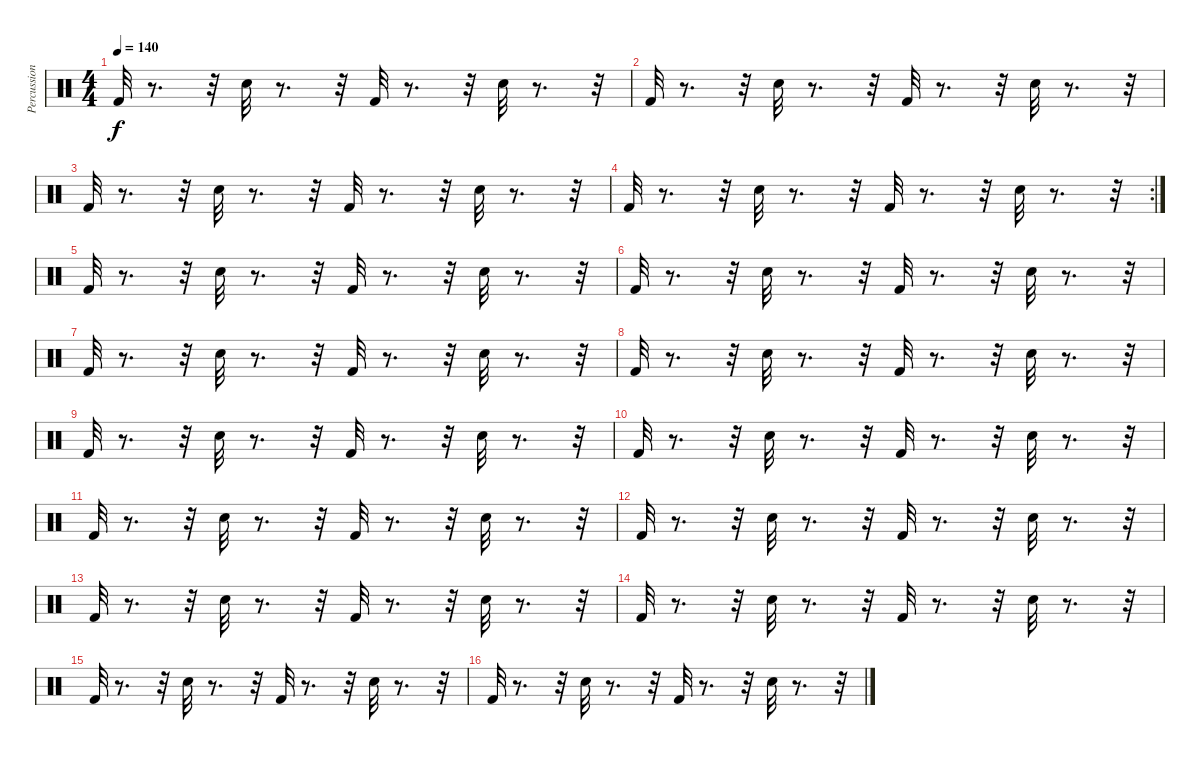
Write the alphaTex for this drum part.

\track ("Percussion 2" "Percussion") {instrument percussion}
\staff {score}
\articulation defaults
\ts (4 4)
\tempo 140
\clef neutral
\ks c "Kick (hit) 2".32{dy f}
r.8{d} r.32 "Snare (hit) 2".32 r.8{d} r.32 "Kick (hit) 2".32 r.8{d} r.32 "Snare (hit) 2".32 r.8{d} r.32 |
"Kick (hit) 2".32 r.8{d} r.32 "Snare (hit) 2".32 r.8{d} r.32 "Kick (hit) 2".32 r.8{d} r.32 "Snare (hit) 2".32 r.8{d} r.32 |
"Kick (hit) 2".32 r.8{d} r.32 "Snare (hit) 2".32 r.8{d} r.32 "Kick (hit) 2".32 r.8{d} r.32 "Snare (hit) 2".32 r.8{d} r.32 |
\rc 2 "Kick (hit) 2".32
r.8{d} r.32 "Snare (hit) 2".32 r.8{d} r.32 "Kick (hit) 2".32 r.8{d} r.32 "Snare (hit) 2".32 r.8{d} r.32 |
"Kick (hit) 2".32 r.8{d} r.32 "Snare (hit) 2".32 r.8{d} r.32 "Kick (hit) 2".32 r.8{d} r.32 "Snare (hit) 2".32 r.8{d} r.32 |
"Kick (hit) 2".32 r.8{d} r.32 "Snare (hit) 2".32 r.8{d} r.32 "Kick (hit) 2".32 r.8{d} r.32 "Snare (hit) 2".32 r.8{d} r.32 |
"Kick (hit) 2".32 r.8{d} r.32 "Snare (hit) 2".32 r.8{d} r.32 "Kick (hit) 2".32 r.8{d} r.32 "Snare (hit) 2".32 r.8{d} r.32 |
"Kick (hit) 2".32 r.8{d} r.32 "Snare (hit) 2".32 r.8{d} r.32 "Kick (hit) 2".32 r.8{d} r.32 "Snare (hit) 2".32 r.8{d} r.32 |
"Kick (hit) 2".32 r.8{d} r.32 "Snare (hit) 2".32 r.8{d} r.32 "Kick (hit) 2".32 r.8{d} r.32 "Snare (hit) 2".32 r.8{d} r.32 |
"Kick (hit) 2".32 r.8{d} r.32 "Snare (hit) 2".32 r.8{d} r.32 "Kick (hit) 2".32 r.8{d} r.32 "Snare (hit) 2".32 r.8{d} r.32 |
"Kick (hit) 2".32 r.8{d} r.32 "Snare (hit) 2".32 r.8{d} r.32 "Kick (hit) 2".32 r.8{d} r.32 "Snare (hit) 2".32 r.8{d} r.32 |
"Kick (hit) 2".32 r.8{d} r.32 "Snare (hit) 2".32 r.8{d} r.32 "Kick (hit) 2".32 r.8{d} r.32 "Snare (hit) 2".32 r.8{d} r.32 |
"Kick (hit) 2".32 r.8{d} r.32 "Snare (hit) 2".32 r.8{d} r.32 "Kick (hit) 2".32 r.8{d} r.32 "Snare (hit) 2".32 r.8{d} r.32 |
"Kick (hit) 2".32 r.8{d} r.32 "Snare (hit) 2".32 r.8{d} r.32 "Kick (hit) 2".32 r.8{d} r.32 "Snare (hit) 2".32 r.8{d} r.32 |
"Kick (hit) 2".32 r.8{d} r.32 "Snare (hit) 2".32 r.8{d} r.32 "Kick (hit) 2".32 r.8{d} r.32 "Snare (hit) 2".32 r.8{d} r.32 |
"Kick (hit) 2".32 r.8{d} r.32 "Snare (hit) 2".32 r.8{d} r.32 "Kick (hit) 2".32 r.8{d} r.32 "Snare (hit) 2".32 r.8{d} r.32
